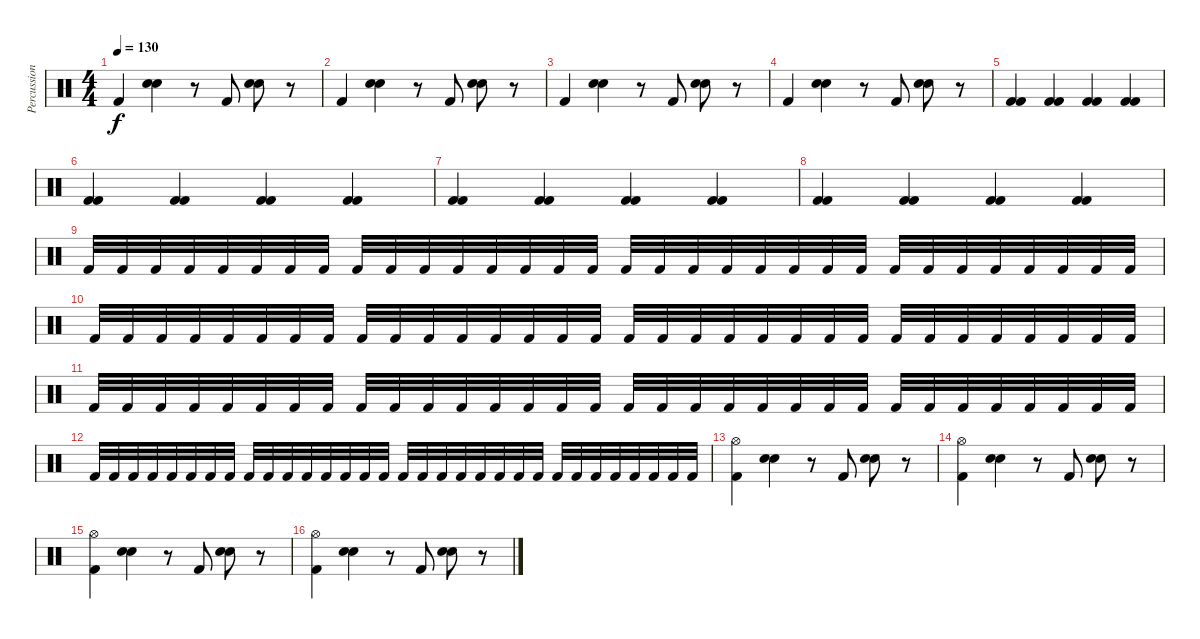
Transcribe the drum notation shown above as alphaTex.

\track ("Percussions" "Percussion") {instrument percussion}
\staff {score}
\articulation defaults
\ts (4 4)
\tempo 130
\clef neutral
\ks c "Kick (hit) 2".4{dy f}
("Electric Snare (hit)" "Electric Snare (hit)").4 r.8 "Kick (hit) 2".8 ("Electric Snare (hit)" "Electric Snare (hit)").8 r.8 |
"Kick (hit) 2".4 ("Electric Snare (hit)" "Electric Snare (hit)").4 r.8 "Kick (hit) 2".8 ("Electric Snare (hit)" "Electric Snare (hit)").8 r.8 |
"Kick (hit) 2".4 ("Electric Snare (hit)" "Electric Snare (hit)").4 r.8 "Kick (hit) 2".8 ("Electric Snare (hit)" "Electric Snare (hit)").8 r.8 |
"Kick (hit) 2".4 ("Electric Snare (hit)" "Electric Snare (hit)").4 r.8 "Kick (hit) 2".8 ("Electric Snare (hit)" "Electric Snare (hit)").8 r.8 |
("Kick (hit) 2" "Kick (hit) 2").4 ("Kick (hit) 2" "Kick (hit) 2").4 ("Kick (hit) 2" "Kick (hit) 2").4 ("Kick (hit) 2" "Kick (hit) 2").4 |
("Kick (hit) 2" "Kick (hit) 2").4 ("Kick (hit) 2" "Kick (hit) 2").4 ("Kick (hit) 2" "Kick (hit) 2").4 ("Kick (hit) 2" "Kick (hit) 2").4 |
("Kick (hit) 2" "Kick (hit) 2").4 ("Kick (hit) 2" "Kick (hit) 2").4 ("Kick (hit) 2" "Kick (hit) 2").4 ("Kick (hit) 2" "Kick (hit) 2").4 |
("Kick (hit) 2" "Kick (hit) 2").4 ("Kick (hit) 2" "Kick (hit) 2").4 ("Kick (hit) 2" "Kick (hit) 2").4 ("Kick (hit) 2" "Kick (hit) 2").4 |
"Kick (hit) 2".32 "Kick (hit) 2".32 "Kick (hit) 2".32 "Kick (hit) 2".32 "Kick (hit) 2".32 "Kick (hit) 2".32 "Kick (hit) 2".32 "Kick (hit) 2".32 "Kick (hit) 2".32 "Kick (hit) 2".32 "Kick (hit) 2".32 "Kick (hit) 2".32 "Kick (hit) 2".32 "Kick (hit) 2".32 "Kick (hit) 2".32 "Kick (hit) 2".32 "Kick (hit) 2".32 "Kick (hit) 2".32 "Kick (hit) 2".32 "Kick (hit) 2".32 "Kick (hit) 2".32 "Kick (hit) 2".32 "Kick (hit) 2".32 "Kick (hit) 2".32 "Kick (hit) 2".32 "Kick (hit) 2".32 "Kick (hit) 2".32 "Kick (hit) 2".32 "Kick (hit) 2".32 "Kick (hit) 2".32 "Kick (hit) 2".32 "Kick (hit) 2".32 |
"Kick (hit) 2".32 "Kick (hit) 2".32 "Kick (hit) 2".32 "Kick (hit) 2".32 "Kick (hit) 2".32 "Kick (hit) 2".32 "Kick (hit) 2".32 "Kick (hit) 2".32 "Kick (hit) 2".32 "Kick (hit) 2".32 "Kick (hit) 2".32 "Kick (hit) 2".32 "Kick (hit) 2".32 "Kick (hit) 2".32 "Kick (hit) 2".32 "Kick (hit) 2".32 "Kick (hit) 2".32 "Kick (hit) 2".32 "Kick (hit) 2".32 "Kick (hit) 2".32 "Kick (hit) 2".32 "Kick (hit) 2".32 "Kick (hit) 2".32 "Kick (hit) 2".32 "Kick (hit) 2".32 "Kick (hit) 2".32 "Kick (hit) 2".32 "Kick (hit) 2".32 "Kick (hit) 2".32 "Kick (hit) 2".32 "Kick (hit) 2".32 "Kick (hit) 2".32 |
"Kick (hit) 2".32 "Kick (hit) 2".32 "Kick (hit) 2".32 "Kick (hit) 2".32 "Kick (hit) 2".32 "Kick (hit) 2".32 "Kick (hit) 2".32 "Kick (hit) 2".32 "Kick (hit) 2".32 "Kick (hit) 2".32 "Kick (hit) 2".32 "Kick (hit) 2".32 "Kick (hit) 2".32 "Kick (hit) 2".32 "Kick (hit) 2".32 "Kick (hit) 2".32 "Kick (hit) 2".32 "Kick (hit) 2".32 "Kick (hit) 2".32 "Kick (hit) 2".32 "Kick (hit) 2".32 "Kick (hit) 2".32 "Kick (hit) 2".32 "Kick (hit) 2".32 "Kick (hit) 2".32 "Kick (hit) 2".32 "Kick (hit) 2".32 "Kick (hit) 2".32 "Kick (hit) 2".32 "Kick (hit) 2".32 "Kick (hit) 2".32 "Kick (hit) 2".32 |
"Kick (hit) 2".32 "Kick (hit) 2".32 "Kick (hit) 2".32 "Kick (hit) 2".32 "Kick (hit) 2".32 "Kick (hit) 2".32 "Kick (hit) 2".32 "Kick (hit) 2".32 "Kick (hit) 2".32 "Kick (hit) 2".32 "Kick (hit) 2".32 "Kick (hit) 2".32 "Kick (hit) 2".32 "Kick (hit) 2".32 "Kick (hit) 2".32 "Kick (hit) 2".32 "Kick (hit) 2".32 "Kick (hit) 2".32 "Kick (hit) 2".32 "Kick (hit) 2".32 "Kick (hit) 2".32 "Kick (hit) 2".32 "Kick (hit) 2".32 "Kick (hit) 2".32 "Kick (hit) 2".32 "Kick (hit) 2".32 "Kick (hit) 2".32 "Kick (hit) 2".32 "Kick (hit) 2".32 "Kick (hit) 2".32 "Kick (hit) 2".32 "Kick (hit) 2".32 |
("Hi-Hat (open)" "Kick (hit) 2").4 ("Electric Snare (hit)" "Electric Snare (hit)").4 r.8 "Kick (hit) 2".8 ("Electric Snare (hit)" "Electric Snare (hit)").8 r.8 |
("Hi-Hat (open)" "Kick (hit) 2").4 ("Electric Snare (hit)" "Electric Snare (hit)").4 r.8 "Kick (hit) 2".8 ("Electric Snare (hit)" "Electric Snare (hit)").8 r.8 |
("Hi-Hat (open)" "Kick (hit) 2").4 ("Electric Snare (hit)" "Electric Snare (hit)").4 r.8 "Kick (hit) 2".8 ("Electric Snare (hit)" "Electric Snare (hit)").8 r.8 |
("Hi-Hat (open)" "Kick (hit) 2").4 ("Electric Snare (hit)" "Electric Snare (hit)").4 r.8 "Kick (hit) 2".8 ("Electric Snare (hit)" "Electric Snare (hit)").8 r.8
